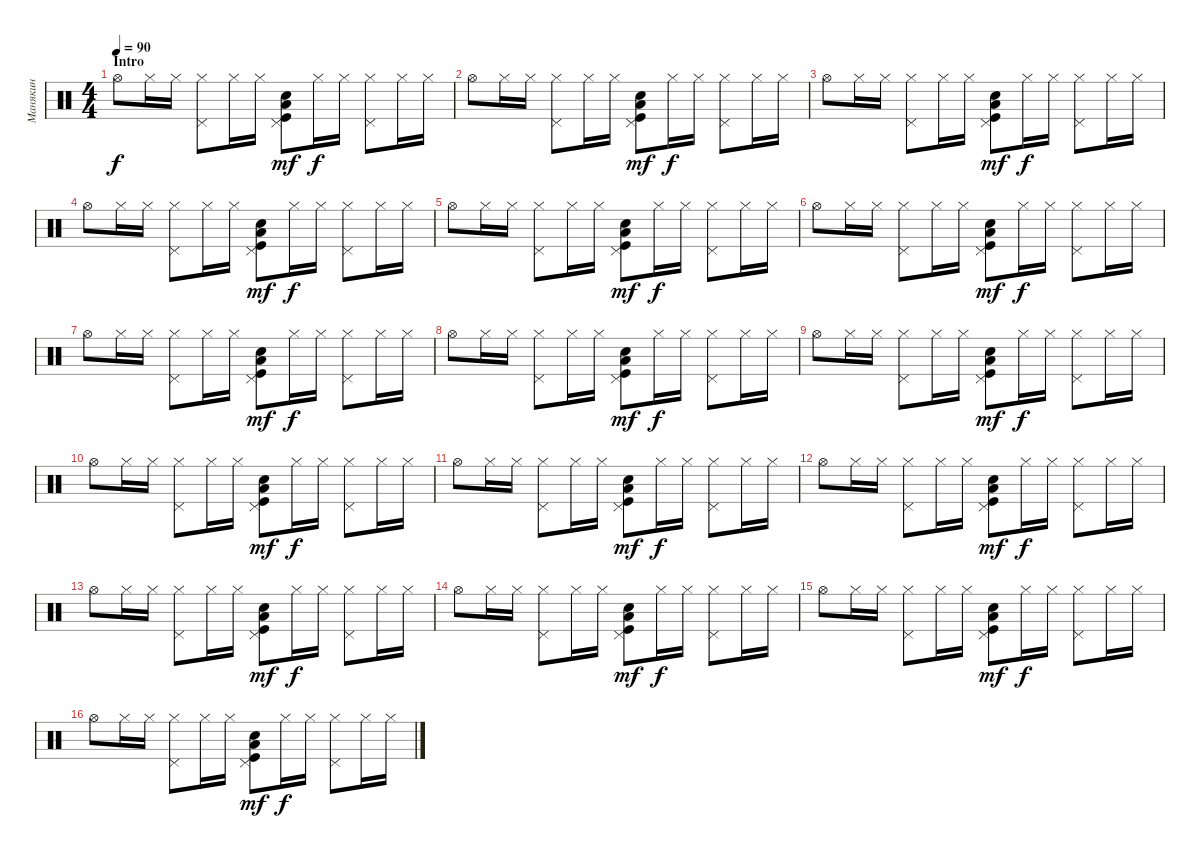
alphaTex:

\track ("Манякин" "Манякин") {instrument percussion}
\staff {score}
\articulation defaults
\ts (4 4)
\section ("" "Intro")
\tempo 90
\clef neutral
\ks c "Hi-Hat (open)".8{dy f} "Hi-Hat (closed)".16 "Hi-Hat (closed)".16
("Hi-Hat (closed)" "Pedal Hi-Hat (hit)").8 "Hi-Hat (closed)".16 "Hi-Hat (closed)".16 ("Low Tom (hit)" "Electric Snare (hit)" "Kick (hit)" "Pedal Hi-Hat (hit)").8{dy mf} "Hi-Hat (closed)".16{dy f} "Hi-Hat (closed)".16 ("Pedal Hi-Hat (hit)" "Hi-Hat (closed)").8 "Hi-Hat (closed)".16 "Hi-Hat (closed)".16 |
"Hi-Hat (open)".8 "Hi-Hat (closed)".16 "Hi-Hat (closed)".16 ("Hi-Hat (closed)" "Pedal Hi-Hat (hit)").8 "Hi-Hat (closed)".16 "Hi-Hat (closed)".16 ("Low Tom (hit)" "Electric Snare (hit)" "Kick (hit)" "Pedal Hi-Hat (hit)").8{dy mf} "Hi-Hat (closed)".16{dy f} "Hi-Hat (closed)".16 ("Pedal Hi-Hat (hit)" "Hi-Hat (closed)").8 "Hi-Hat (closed)".16 "Hi-Hat (closed)".16 |
"Hi-Hat (open)".8 "Hi-Hat (closed)".16 "Hi-Hat (closed)".16 ("Hi-Hat (closed)" "Pedal Hi-Hat (hit)").8 "Hi-Hat (closed)".16 "Hi-Hat (closed)".16 ("Low Tom (hit)" "Electric Snare (hit)" "Kick (hit)" "Pedal Hi-Hat (hit)").8{dy mf} "Hi-Hat (closed)".16{dy f} "Hi-Hat (closed)".16 ("Pedal Hi-Hat (hit)" "Hi-Hat (closed)").8 "Hi-Hat (closed)".16 "Hi-Hat (closed)".16 |
"Hi-Hat (open)".8 "Hi-Hat (closed)".16 "Hi-Hat (closed)".16 ("Hi-Hat (closed)" "Pedal Hi-Hat (hit)").8 "Hi-Hat (closed)".16 "Hi-Hat (closed)".16 ("Low Tom (hit)" "Electric Snare (hit)" "Kick (hit)" "Pedal Hi-Hat (hit)").8{dy mf} "Hi-Hat (closed)".16{dy f} "Hi-Hat (closed)".16 ("Pedal Hi-Hat (hit)" "Hi-Hat (closed)").8 "Hi-Hat (closed)".16 "Hi-Hat (closed)".16 |
"Hi-Hat (open)".8 "Hi-Hat (closed)".16 "Hi-Hat (closed)".16 ("Hi-Hat (closed)" "Pedal Hi-Hat (hit)").8 "Hi-Hat (closed)".16 "Hi-Hat (closed)".16 ("Low Tom (hit)" "Electric Snare (hit)" "Kick (hit)" "Pedal Hi-Hat (hit)").8{dy mf} "Hi-Hat (closed)".16{dy f} "Hi-Hat (closed)".16 ("Pedal Hi-Hat (hit)" "Hi-Hat (closed)").8 "Hi-Hat (closed)".16 "Hi-Hat (closed)".16 |
"Hi-Hat (open)".8 "Hi-Hat (closed)".16 "Hi-Hat (closed)".16 ("Hi-Hat (closed)" "Pedal Hi-Hat (hit)").8 "Hi-Hat (closed)".16 "Hi-Hat (closed)".16 ("Low Tom (hit)" "Electric Snare (hit)" "Kick (hit)" "Pedal Hi-Hat (hit)").8{dy mf} "Hi-Hat (closed)".16{dy f} "Hi-Hat (closed)".16 ("Pedal Hi-Hat (hit)" "Hi-Hat (closed)").8 "Hi-Hat (closed)".16 "Hi-Hat (closed)".16 |
"Hi-Hat (open)".8 "Hi-Hat (closed)".16 "Hi-Hat (closed)".16 ("Hi-Hat (closed)" "Pedal Hi-Hat (hit)").8 "Hi-Hat (closed)".16 "Hi-Hat (closed)".16 ("Low Tom (hit)" "Electric Snare (hit)" "Kick (hit)" "Pedal Hi-Hat (hit)").8{dy mf} "Hi-Hat (closed)".16{dy f} "Hi-Hat (closed)".16 ("Pedal Hi-Hat (hit)" "Hi-Hat (closed)").8 "Hi-Hat (closed)".16 "Hi-Hat (closed)".16 |
"Hi-Hat (open)".8 "Hi-Hat (closed)".16 "Hi-Hat (closed)".16 ("Hi-Hat (closed)" "Pedal Hi-Hat (hit)").8 "Hi-Hat (closed)".16 "Hi-Hat (closed)".16 ("Low Tom (hit)" "Electric Snare (hit)" "Kick (hit)" "Pedal Hi-Hat (hit)").8{dy mf} "Hi-Hat (closed)".16{dy f} "Hi-Hat (closed)".16 ("Pedal Hi-Hat (hit)" "Hi-Hat (closed)").8 "Hi-Hat (closed)".16 "Hi-Hat (closed)".16 |
"Hi-Hat (open)".8 "Hi-Hat (closed)".16 "Hi-Hat (closed)".16 ("Hi-Hat (closed)" "Pedal Hi-Hat (hit)").8 "Hi-Hat (closed)".16 "Hi-Hat (closed)".16 ("Low Tom (hit)" "Electric Snare (hit)" "Kick (hit)" "Pedal Hi-Hat (hit)").8{dy mf} "Hi-Hat (closed)".16{dy f} "Hi-Hat (closed)".16 ("Pedal Hi-Hat (hit)" "Hi-Hat (closed)").8 "Hi-Hat (closed)".16 "Hi-Hat (closed)".16 |
"Hi-Hat (open)".8 "Hi-Hat (closed)".16 "Hi-Hat (closed)".16 ("Hi-Hat (closed)" "Pedal Hi-Hat (hit)").8 "Hi-Hat (closed)".16 "Hi-Hat (closed)".16 ("Low Tom (hit)" "Electric Snare (hit)" "Kick (hit)" "Pedal Hi-Hat (hit)").8{dy mf} "Hi-Hat (closed)".16{dy f} "Hi-Hat (closed)".16 ("Pedal Hi-Hat (hit)" "Hi-Hat (closed)").8 "Hi-Hat (closed)".16 "Hi-Hat (closed)".16 |
"Hi-Hat (open)".8 "Hi-Hat (closed)".16 "Hi-Hat (closed)".16 ("Hi-Hat (closed)" "Pedal Hi-Hat (hit)").8 "Hi-Hat (closed)".16 "Hi-Hat (closed)".16 ("Low Tom (hit)" "Electric Snare (hit)" "Kick (hit)" "Pedal Hi-Hat (hit)").8{dy mf} "Hi-Hat (closed)".16{dy f} "Hi-Hat (closed)".16 ("Pedal Hi-Hat (hit)" "Hi-Hat (closed)").8 "Hi-Hat (closed)".16 "Hi-Hat (closed)".16 |
"Hi-Hat (open)".8 "Hi-Hat (closed)".16 "Hi-Hat (closed)".16 ("Hi-Hat (closed)" "Pedal Hi-Hat (hit)").8 "Hi-Hat (closed)".16 "Hi-Hat (closed)".16 ("Low Tom (hit)" "Electric Snare (hit)" "Kick (hit)" "Pedal Hi-Hat (hit)").8{dy mf} "Hi-Hat (closed)".16{dy f} "Hi-Hat (closed)".16 ("Pedal Hi-Hat (hit)" "Hi-Hat (closed)").8 "Hi-Hat (closed)".16 "Hi-Hat (closed)".16 |
"Hi-Hat (open)".8 "Hi-Hat (closed)".16 "Hi-Hat (closed)".16 ("Hi-Hat (closed)" "Pedal Hi-Hat (hit)").8 "Hi-Hat (closed)".16 "Hi-Hat (closed)".16 ("Low Tom (hit)" "Electric Snare (hit)" "Kick (hit)" "Pedal Hi-Hat (hit)").8{dy mf} "Hi-Hat (closed)".16{dy f} "Hi-Hat (closed)".16 ("Pedal Hi-Hat (hit)" "Hi-Hat (closed)").8 "Hi-Hat (closed)".16 "Hi-Hat (closed)".16 |
"Hi-Hat (open)".8 "Hi-Hat (closed)".16 "Hi-Hat (closed)".16 ("Hi-Hat (closed)" "Pedal Hi-Hat (hit)").8 "Hi-Hat (closed)".16 "Hi-Hat (closed)".16 ("Low Tom (hit)" "Electric Snare (hit)" "Kick (hit)" "Pedal Hi-Hat (hit)").8{dy mf} "Hi-Hat (closed)".16{dy f} "Hi-Hat (closed)".16 ("Pedal Hi-Hat (hit)" "Hi-Hat (closed)").8 "Hi-Hat (closed)".16 "Hi-Hat (closed)".16 |
"Hi-Hat (open)".8 "Hi-Hat (closed)".16 "Hi-Hat (closed)".16 ("Hi-Hat (closed)" "Pedal Hi-Hat (hit)").8 "Hi-Hat (closed)".16 "Hi-Hat (closed)".16 ("Low Tom (hit)" "Electric Snare (hit)" "Kick (hit)" "Pedal Hi-Hat (hit)").8{dy mf} "Hi-Hat (closed)".16{dy f} "Hi-Hat (closed)".16 ("Pedal Hi-Hat (hit)" "Hi-Hat (closed)").8 "Hi-Hat (closed)".16 "Hi-Hat (closed)".16 |
"Hi-Hat (open)".8 "Hi-Hat (closed)".16 "Hi-Hat (closed)".16 ("Hi-Hat (closed)" "Pedal Hi-Hat (hit)").8 "Hi-Hat (closed)".16 "Hi-Hat (closed)".16 ("Low Tom (hit)" "Electric Snare (hit)" "Kick (hit)" "Pedal Hi-Hat (hit)").8{dy mf} "Hi-Hat (closed)".16{dy f} "Hi-Hat (closed)".16 ("Pedal Hi-Hat (hit)" "Hi-Hat (closed)").8 "Hi-Hat (closed)".16 "Hi-Hat (closed)".16
